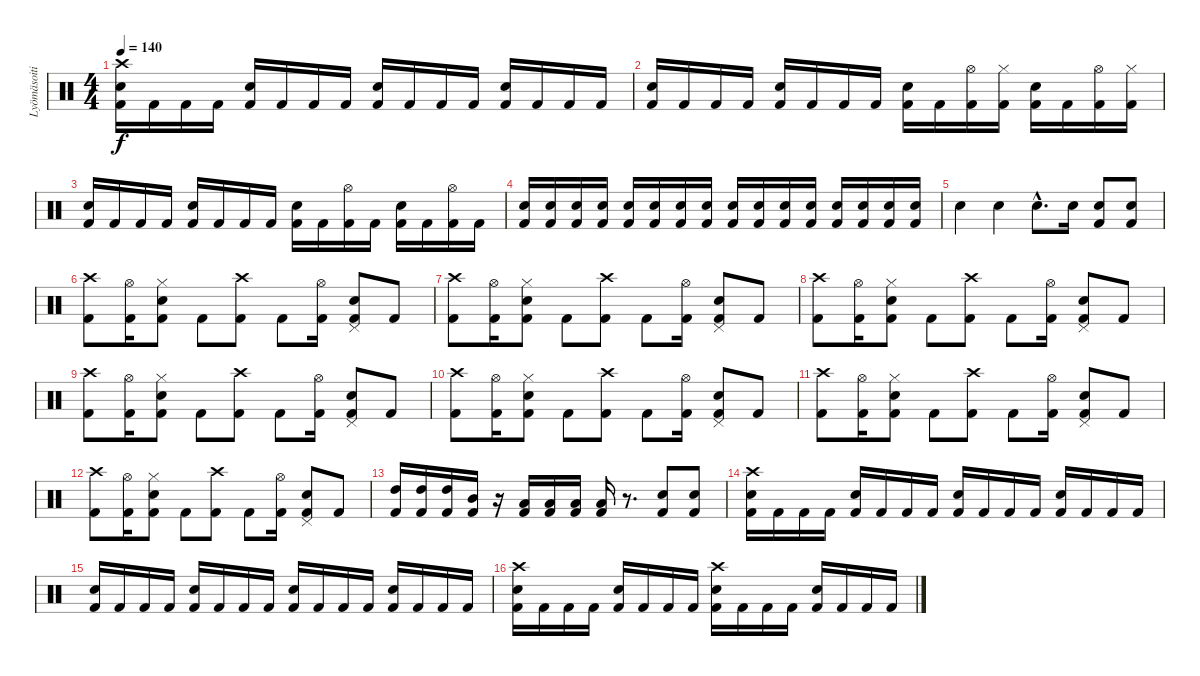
\track ("Lyömäsoitin" "Lyömäsoiti") {instrument percussion}
\staff {score}
\articulation defaults
\ts (4 4)
\tempo 140
\clef neutral
\ks c
("Crash high (hit)" "Electric Snare (hit)" "Kick (hit) 2").16{dy f} "Kick (hit) 2".16 "Kick (hit) 2".16 "Kick (hit) 2".16 ("Electric Snare (hit)" "Kick (hit) 2").16 "Kick (hit) 2".16 "Kick (hit) 2".16 "Kick (hit) 2".16 ("Electric Snare (hit)" "Kick (hit) 2").16 "Kick (hit) 2".16 "Kick (hit) 2".16 "Kick (hit) 2".16 ("Electric Snare (hit)" "Kick (hit) 2").16 "Kick (hit) 2".16 "Kick (hit) 2".16 "Kick (hit) 2".16 |
("Electric Snare (hit)" "Kick (hit) 2").16 "Kick (hit) 2".16 "Kick (hit) 2".16 "Kick (hit) 2".16 ("Electric Snare (hit)" "Kick (hit) 2").16 "Kick (hit) 2".16 "Kick (hit) 2".16 "Kick (hit) 2".16 ("Electric Snare (hit)" "Kick (hit) 2").16 "Kick (hit) 2".16 ("Hi-Hat (open)" "Kick (hit) 2").16 ("Hi-Hat (closed)" "Kick (hit) 2").16 ("Electric Snare (hit)" "Kick (hit) 2").16 "Kick (hit) 2".16 ("Hi-Hat (open)" "Kick (hit) 2").16 ("Hi-Hat (closed)" "Kick (hit) 2").16 |
("Electric Snare (hit)" "Kick (hit) 2").16 "Kick (hit) 2".16 "Kick (hit) 2".16 "Kick (hit) 2".16 ("Electric Snare (hit)" "Kick (hit) 2").16 "Kick (hit) 2".16 "Kick (hit) 2".16 "Kick (hit) 2".16 ("Electric Snare (hit)" "Kick (hit) 2").16 "Kick (hit) 2".16 ("Hi-Hat (open)" "Kick (hit) 2").16 "Kick (hit) 2".16 ("Electric Snare (hit)" "Kick (hit) 2").16 "Kick (hit) 2".16 ("Hi-Hat (open)" "Kick (hit) 2").16 "Kick (hit) 2".16 |
("Electric Snare (hit)" "Kick (hit) 2").16 ("Electric Snare (hit)" "Kick (hit) 2").16 ("Electric Snare (hit)" "Kick (hit) 2").16 ("Electric Snare (hit)" "Kick (hit) 2").16 ("Electric Snare (hit)" "Kick (hit) 2").16 ("Electric Snare (hit)" "Kick (hit) 2").16 ("Electric Snare (hit)" "Kick (hit) 2").16 ("Electric Snare (hit)" "Kick (hit) 2").16 ("Electric Snare (hit)" "Kick (hit) 2").16 ("Electric Snare (hit)" "Kick (hit) 2").16 ("Electric Snare (hit)" "Kick (hit) 2").16 ("Electric Snare (hit)" "Kick (hit) 2").16 ("Electric Snare (hit)" "Kick (hit) 2").16 ("Electric Snare (hit)" "Kick (hit) 2").16 ("Electric Snare (hit)" "Kick (hit) 2").16 ("Electric Snare (hit)" "Kick (hit) 2").16 |
"Electric Snare (hit)".4 "Electric Snare (hit)".4 "Electric Snare (hit)"{hac}.8{d} "Electric Snare (hit)".16 ("Electric Snare (hit)" "Kick (hit) 2").8 ("Electric Snare (hit)" "Kick (hit) 2").8 |
("Kick (hit) 2" "Crash high (hit)").8 ("Kick (hit) 2" "Hi-Hat (open)").16 ("Kick (hit) 2" "Electric Snare (hit)" "Hi-Hat (closed)").8 "Kick (hit) 2".8 ("Kick (hit) 2" "Crash high (hit)").8 "Kick (hit) 2".8 ("Kick (hit) 2" "Hi-Hat (open)").16 ("Kick (hit) 2" "Electric Snare (hit)" "Pedal Hi-Hat (hit)").8 "Kick (hit) 2".8 |
("Kick (hit) 2" "Crash high (hit)").8 ("Kick (hit) 2" "Hi-Hat (open)").16 ("Kick (hit) 2" "Electric Snare (hit)" "Hi-Hat (closed)").8 "Kick (hit) 2".8 ("Kick (hit) 2" "Crash high (hit)").8 "Kick (hit) 2".8 ("Kick (hit) 2" "Hi-Hat (open)").16 ("Kick (hit) 2" "Electric Snare (hit)" "Pedal Hi-Hat (hit)").8 "Kick (hit) 2".8 |
("Kick (hit) 2" "Crash high (hit)").8 ("Kick (hit) 2" "Hi-Hat (open)").16 ("Kick (hit) 2" "Electric Snare (hit)" "Hi-Hat (closed)").8 "Kick (hit) 2".8 ("Kick (hit) 2" "Crash high (hit)").8 "Kick (hit) 2".8 ("Kick (hit) 2" "Hi-Hat (open)").16 ("Kick (hit) 2" "Electric Snare (hit)" "Pedal Hi-Hat (hit)").8 "Kick (hit) 2".8 |
("Kick (hit) 2" "Crash high (hit)").8 ("Kick (hit) 2" "Hi-Hat (open)").16 ("Kick (hit) 2" "Electric Snare (hit)" "Hi-Hat (closed)").8 "Kick (hit) 2".8 ("Kick (hit) 2" "Crash high (hit)").8 "Kick (hit) 2".8 ("Kick (hit) 2" "Hi-Hat (open)").16 ("Kick (hit) 2" "Electric Snare (hit)" "Pedal Hi-Hat (hit)").8 "Kick (hit) 2".8 |
("Kick (hit) 2" "Crash high (hit)").8 ("Kick (hit) 2" "Hi-Hat (open)").16 ("Kick (hit) 2" "Electric Snare (hit)" "Hi-Hat (closed)").8 "Kick (hit) 2".8 ("Kick (hit) 2" "Crash high (hit)").8 "Kick (hit) 2".8 ("Kick (hit) 2" "Hi-Hat (open)").16 ("Kick (hit) 2" "Electric Snare (hit)" "Pedal Hi-Hat (hit)").8 "Kick (hit) 2".8 |
("Kick (hit) 2" "Crash high (hit)").8 ("Kick (hit) 2" "Hi-Hat (open)").16 ("Kick (hit) 2" "Electric Snare (hit)" "Hi-Hat (closed)").8 "Kick (hit) 2".8 ("Kick (hit) 2" "Crash high (hit)").8 "Kick (hit) 2".8 ("Kick (hit) 2" "Hi-Hat (open)").16 ("Kick (hit) 2" "Electric Snare (hit)" "Pedal Hi-Hat (hit)").8 "Kick (hit) 2".8 |
("Kick (hit) 2" "Crash high (hit)").8 ("Kick (hit) 2" "Hi-Hat (open)").16 ("Kick (hit) 2" "Electric Snare (hit)" "Hi-Hat (closed)").8 "Kick (hit) 2".8 ("Kick (hit) 2" "Crash high (hit)").8 "Kick (hit) 2".8 ("Kick (hit) 2" "Hi-Hat (open)").16 ("Kick (hit) 2" "Electric Snare (hit)" "Pedal Hi-Hat (hit)").8 "Kick (hit) 2".8 |
("Kick (hit) 2" "High Tom (hit)").16 ("Kick (hit) 2" "High Tom (hit)").16 ("Kick (hit) 2" "High Tom (hit)").16 ("Kick (hit) 2" "Mid Tom (hit)").16 r.16 ("Kick (hit) 2" "Low Tom (hit)").16 ("Kick (hit) 2" "Low Tom (hit)").16 ("Kick (hit) 2" "Low Tom (hit)").16 ("Kick (hit) 2" "Low Tom (hit)").16 r.8{d} ("Electric Snare (hit)" "Kick (hit) 2").8 ("Electric Snare (hit)" "Kick (hit) 2").8 |
("Crash high (hit)" "Electric Snare (hit)" "Kick (hit) 2").16 "Kick (hit) 2".16 "Kick (hit) 2".16 "Kick (hit) 2".16 ("Electric Snare (hit)" "Kick (hit) 2").16 "Kick (hit) 2".16 "Kick (hit) 2".16 "Kick (hit) 2".16 ("Electric Snare (hit)" "Kick (hit) 2").16 "Kick (hit) 2".16 "Kick (hit) 2".16 "Kick (hit) 2".16 ("Electric Snare (hit)" "Kick (hit) 2").16 "Kick (hit) 2".16 "Kick (hit) 2".16 "Kick (hit) 2".16 |
("Electric Snare (hit)" "Kick (hit) 2").16 "Kick (hit) 2".16 "Kick (hit) 2".16 "Kick (hit) 2".16 ("Electric Snare (hit)" "Kick (hit) 2").16 "Kick (hit) 2".16 "Kick (hit) 2".16 "Kick (hit) 2".16 ("Electric Snare (hit)" "Kick (hit) 2").16 "Kick (hit) 2".16 "Kick (hit) 2".16 "Kick (hit) 2".16 ("Electric Snare (hit)" "Kick (hit) 2").16 "Kick (hit) 2".16 "Kick (hit) 2".16 "Kick (hit) 2".16 |
("Crash high (hit)" "Electric Snare (hit)" "Kick (hit) 2").16 "Kick (hit) 2".16 "Kick (hit) 2".16 "Kick (hit) 2".16 ("Electric Snare (hit)" "Kick (hit) 2").16 "Kick (hit) 2".16 "Kick (hit) 2".16 "Kick (hit) 2".16 ("Crash high (hit)" "Electric Snare (hit)" "Kick (hit) 2").16 "Kick (hit) 2".16 "Kick (hit) 2".16 "Kick (hit) 2".16 ("Electric Snare (hit)" "Kick (hit) 2").16 "Kick (hit) 2".16 "Kick (hit) 2".16 "Kick (hit) 2".16
